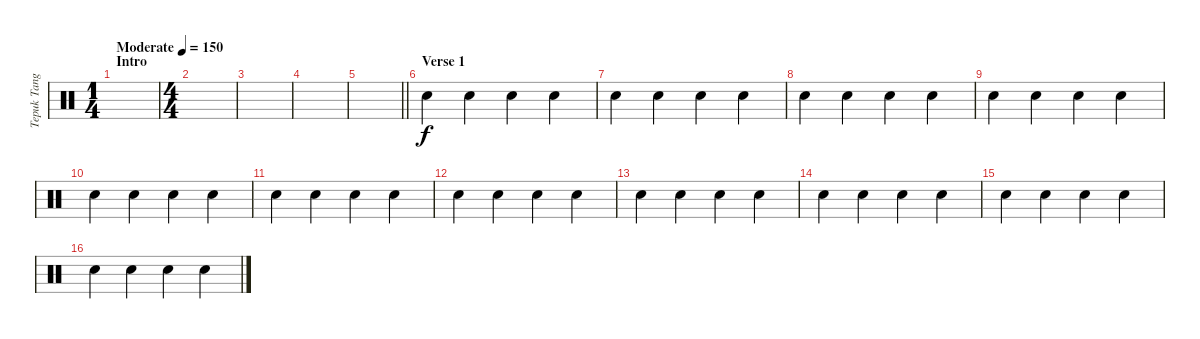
\track ("Tepuk Tangan" "Tepuk Tang") {instrument percussion}
\staff {score}
\articulation defaults
\ts (1 4)
\section ("" "Intro")
\tempo (150 "Moderate")
\clef neutral
\ks c
|
\ts (4 4)
|
|
|
\barLineRight lightlight
|
\section ("" "Verse 1")
"Hand Clap (hit)".4 "Hand Clap (hit)".4 "Hand Clap (hit)".4 "Hand Clap (hit)".4 |
"Hand Clap (hit)".4 "Hand Clap (hit)".4 "Hand Clap (hit)".4 "Hand Clap (hit)".4 |
"Hand Clap (hit)".4 "Hand Clap (hit)".4 "Hand Clap (hit)".4 "Hand Clap (hit)".4 |
"Hand Clap (hit)".4 "Hand Clap (hit)".4 "Hand Clap (hit)".4 "Hand Clap (hit)".4 |
"Hand Clap (hit)".4 "Hand Clap (hit)".4 "Hand Clap (hit)".4 "Hand Clap (hit)".4 |
"Hand Clap (hit)".4 "Hand Clap (hit)".4 "Hand Clap (hit)".4 "Hand Clap (hit)".4 |
"Hand Clap (hit)".4 "Hand Clap (hit)".4 "Hand Clap (hit)".4 "Hand Clap (hit)".4 |
"Hand Clap (hit)".4 "Hand Clap (hit)".4 "Hand Clap (hit)".4 "Hand Clap (hit)".4 |
"Hand Clap (hit)".4 "Hand Clap (hit)".4 "Hand Clap (hit)".4 "Hand Clap (hit)".4 |
"Hand Clap (hit)".4 "Hand Clap (hit)".4 "Hand Clap (hit)".4 "Hand Clap (hit)".4 |
"Hand Clap (hit)".4 "Hand Clap (hit)".4 "Hand Clap (hit)".4 "Hand Clap (hit)".4
